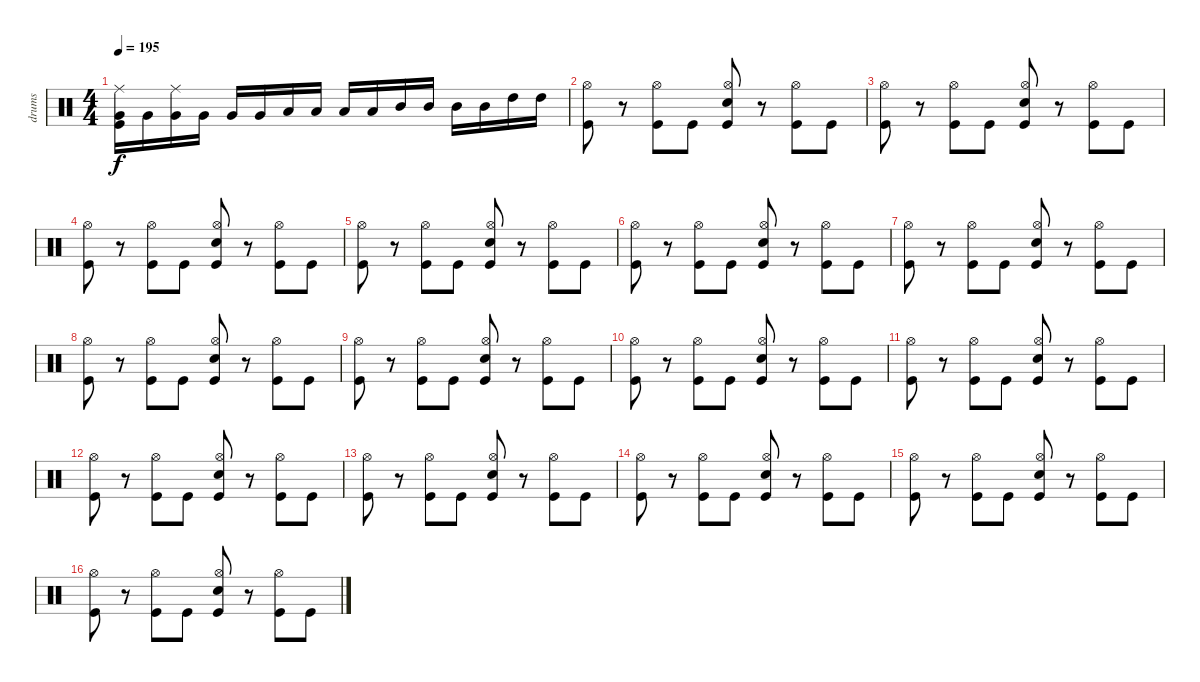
\track ("drums" "drums") {instrument percussion}
\staff {score}
\articulation defaults
\ts (4 4)
\tempo 195
\clef neutral
\ks c
("Ride (middle)" "Very Low Tom (hit)" "Kick (hit)").16{dy f} "Very Low Tom (hit)".16 ("Ride (middle)" "Very Low Tom (hit)").16 "Very Low Tom (hit)".16 "Very Low Tom (hit)".16 "Very Low Tom (hit)".16 "Low Tom (hit)".16 "Low Tom (hit)".16 "Low Tom (hit)".16 "Low Tom (hit)".16 "Mid Tom (hit)".16 "Mid Tom (hit)".16 "Mid Tom (hit)".16 "Mid Tom (hit)".16 "High Tom (hit)".16 "High Tom (hit)".16 |
("Hi-Hat (open)" "Kick (hit)").8 r.8 ("Hi-Hat (open)" "Kick (hit)").8 "Kick (hit)".8 ("Hi-Hat (open)" "Electric Snare (hit)" "Kick (hit)").8 r.8 ("Hi-Hat (open)" "Kick (hit)").8 "Kick (hit)".8 |
("Hi-Hat (open)" "Kick (hit)").8 r.8 ("Hi-Hat (open)" "Kick (hit)").8 "Kick (hit)".8 ("Hi-Hat (open)" "Electric Snare (hit)" "Kick (hit)").8 r.8 ("Hi-Hat (open)" "Kick (hit)").8 "Kick (hit)".8 |
("Hi-Hat (open)" "Kick (hit)").8 r.8 ("Hi-Hat (open)" "Kick (hit)").8 "Kick (hit)".8 ("Hi-Hat (open)" "Electric Snare (hit)" "Kick (hit)").8 r.8 ("Hi-Hat (open)" "Kick (hit)").8 "Kick (hit)".8 |
("Hi-Hat (open)" "Kick (hit)").8 r.8 ("Hi-Hat (open)" "Kick (hit)").8 "Kick (hit)".8 ("Hi-Hat (open)" "Electric Snare (hit)" "Kick (hit)").8 r.8 ("Hi-Hat (open)" "Kick (hit)").8 "Kick (hit)".8 |
("Hi-Hat (open)" "Kick (hit)").8 r.8 ("Hi-Hat (open)" "Kick (hit)").8 "Kick (hit)".8 ("Hi-Hat (open)" "Electric Snare (hit)" "Kick (hit)").8 r.8 ("Hi-Hat (open)" "Kick (hit)").8 "Kick (hit)".8 |
("Hi-Hat (open)" "Kick (hit)").8 r.8 ("Hi-Hat (open)" "Kick (hit)").8 "Kick (hit)".8 ("Hi-Hat (open)" "Electric Snare (hit)" "Kick (hit)").8 r.8 ("Hi-Hat (open)" "Kick (hit)").8 "Kick (hit)".8 |
("Hi-Hat (open)" "Kick (hit)").8 r.8 ("Hi-Hat (open)" "Kick (hit)").8 "Kick (hit)".8 ("Hi-Hat (open)" "Electric Snare (hit)" "Kick (hit)").8 r.8 ("Hi-Hat (open)" "Kick (hit)").8 "Kick (hit)".8 |
("Hi-Hat (open)" "Kick (hit)").8 r.8 ("Hi-Hat (open)" "Kick (hit)").8 "Kick (hit)".8 ("Hi-Hat (open)" "Electric Snare (hit)" "Kick (hit)").8 r.8 ("Hi-Hat (open)" "Kick (hit)").8 "Kick (hit)".8 |
("Hi-Hat (open)" "Kick (hit)").8 r.8 ("Hi-Hat (open)" "Kick (hit)").8 "Kick (hit)".8 ("Hi-Hat (open)" "Electric Snare (hit)" "Kick (hit)").8 r.8 ("Hi-Hat (open)" "Kick (hit)").8 "Kick (hit)".8 |
("Hi-Hat (open)" "Kick (hit)").8 r.8 ("Hi-Hat (open)" "Kick (hit)").8 "Kick (hit)".8 ("Hi-Hat (open)" "Electric Snare (hit)" "Kick (hit)").8 r.8 ("Hi-Hat (open)" "Kick (hit)").8 "Kick (hit)".8 |
("Hi-Hat (open)" "Kick (hit)").8 r.8 ("Hi-Hat (open)" "Kick (hit)").8 "Kick (hit)".8 ("Hi-Hat (open)" "Electric Snare (hit)" "Kick (hit)").8 r.8 ("Hi-Hat (open)" "Kick (hit)").8 "Kick (hit)".8 |
("Hi-Hat (open)" "Kick (hit)").8 r.8 ("Hi-Hat (open)" "Kick (hit)").8 "Kick (hit)".8 ("Hi-Hat (open)" "Electric Snare (hit)" "Kick (hit)").8 r.8 ("Hi-Hat (open)" "Kick (hit)").8 "Kick (hit)".8 |
("Hi-Hat (open)" "Kick (hit)").8 r.8 ("Hi-Hat (open)" "Kick (hit)").8 "Kick (hit)".8 ("Hi-Hat (open)" "Electric Snare (hit)" "Kick (hit)").8 r.8 ("Hi-Hat (open)" "Kick (hit)").8 "Kick (hit)".8 |
("Hi-Hat (open)" "Kick (hit)").8 r.8 ("Hi-Hat (open)" "Kick (hit)").8 "Kick (hit)".8 ("Hi-Hat (open)" "Electric Snare (hit)" "Kick (hit)").8 r.8 ("Hi-Hat (open)" "Kick (hit)").8 "Kick (hit)".8 |
("Hi-Hat (open)" "Kick (hit)").8 r.8 ("Hi-Hat (open)" "Kick (hit)").8 "Kick (hit)".8 ("Hi-Hat (open)" "Electric Snare (hit)" "Kick (hit)").8 r.8 ("Hi-Hat (open)" "Kick (hit)").8 "Kick (hit)".8
